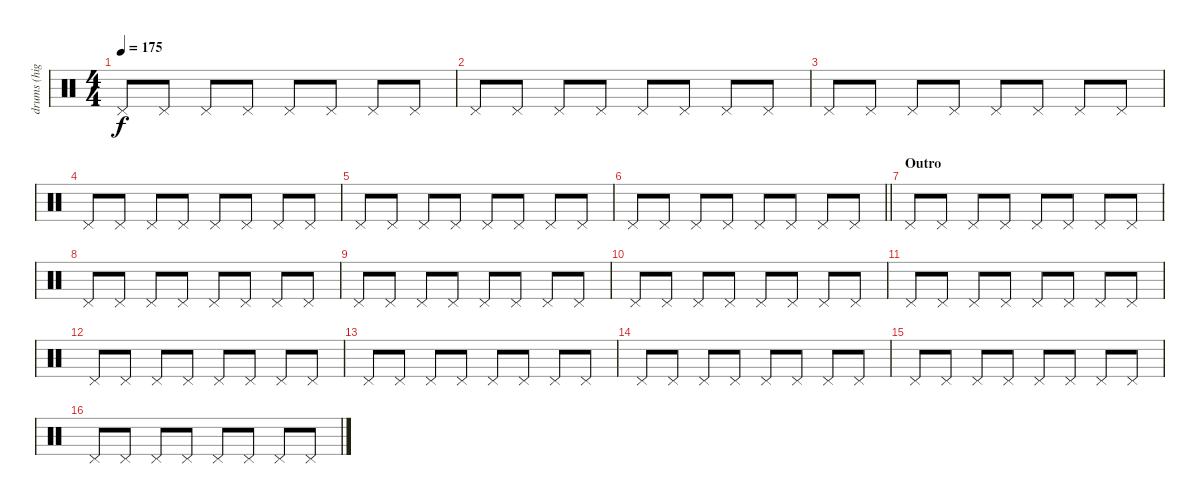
\track ("drums (highhat)" "drums (hig") {instrument percussion}
\staff {score}
\articulation defaults
\ts (4 4)
\tempo 175
\clef neutral
\ks c "Pedal Hi-Hat (hit)".8{dy f} "Pedal Hi-Hat (hit)".8 "Pedal Hi-Hat (hit)".8 "Pedal Hi-Hat (hit)".8 "Pedal Hi-Hat (hit)".8 "Pedal Hi-Hat (hit)".8 "Pedal Hi-Hat (hit)".8 "Pedal Hi-Hat (hit)".8
|
"Pedal Hi-Hat (hit)".8 "Pedal Hi-Hat (hit)".8 "Pedal Hi-Hat (hit)".8 "Pedal Hi-Hat (hit)".8 "Pedal Hi-Hat (hit)".8 "Pedal Hi-Hat (hit)".8 "Pedal Hi-Hat (hit)".8 "Pedal Hi-Hat (hit)".8 |
"Pedal Hi-Hat (hit)".8 "Pedal Hi-Hat (hit)".8 "Pedal Hi-Hat (hit)".8 "Pedal Hi-Hat (hit)".8 "Pedal Hi-Hat (hit)".8 "Pedal Hi-Hat (hit)".8 "Pedal Hi-Hat (hit)".8 "Pedal Hi-Hat (hit)".8 |
"Pedal Hi-Hat (hit)".8 "Pedal Hi-Hat (hit)".8 "Pedal Hi-Hat (hit)".8 "Pedal Hi-Hat (hit)".8 "Pedal Hi-Hat (hit)".8 "Pedal Hi-Hat (hit)".8 "Pedal Hi-Hat (hit)".8 "Pedal Hi-Hat (hit)".8 |
"Pedal Hi-Hat (hit)".8 "Pedal Hi-Hat (hit)".8 "Pedal Hi-Hat (hit)".8 "Pedal Hi-Hat (hit)".8 "Pedal Hi-Hat (hit)".8 "Pedal Hi-Hat (hit)".8 "Pedal Hi-Hat (hit)".8 "Pedal Hi-Hat (hit)".8 |
\barLineRight lightlight "Pedal Hi-Hat (hit)".8 "Pedal Hi-Hat (hit)".8 "Pedal Hi-Hat (hit)".8 "Pedal Hi-Hat (hit)".8 "Pedal Hi-Hat (hit)".8 "Pedal Hi-Hat (hit)".8 "Pedal Hi-Hat (hit)".8 "Pedal Hi-Hat (hit)".8
|
\section ("" "Outro")
"Pedal Hi-Hat (hit)".8 "Pedal Hi-Hat (hit)".8 "Pedal Hi-Hat (hit)".8 "Pedal Hi-Hat (hit)".8 "Pedal Hi-Hat (hit)".8 "Pedal Hi-Hat (hit)".8 "Pedal Hi-Hat (hit)".8 "Pedal Hi-Hat (hit)".8 |
"Pedal Hi-Hat (hit)".8 "Pedal Hi-Hat (hit)".8 "Pedal Hi-Hat (hit)".8 "Pedal Hi-Hat (hit)".8 "Pedal Hi-Hat (hit)".8 "Pedal Hi-Hat (hit)".8 "Pedal Hi-Hat (hit)".8 "Pedal Hi-Hat (hit)".8 |
"Pedal Hi-Hat (hit)".8 "Pedal Hi-Hat (hit)".8 "Pedal Hi-Hat (hit)".8 "Pedal Hi-Hat (hit)".8 "Pedal Hi-Hat (hit)".8 "Pedal Hi-Hat (hit)".8 "Pedal Hi-Hat (hit)".8 "Pedal Hi-Hat (hit)".8 |
"Pedal Hi-Hat (hit)".8 "Pedal Hi-Hat (hit)".8 "Pedal Hi-Hat (hit)".8 "Pedal Hi-Hat (hit)".8 "Pedal Hi-Hat (hit)".8 "Pedal Hi-Hat (hit)".8 "Pedal Hi-Hat (hit)".8 "Pedal Hi-Hat (hit)".8 |
"Pedal Hi-Hat (hit)".8 "Pedal Hi-Hat (hit)".8 "Pedal Hi-Hat (hit)".8 "Pedal Hi-Hat (hit)".8 "Pedal Hi-Hat (hit)".8 "Pedal Hi-Hat (hit)".8 "Pedal Hi-Hat (hit)".8 "Pedal Hi-Hat (hit)".8 |
"Pedal Hi-Hat (hit)".8 "Pedal Hi-Hat (hit)".8 "Pedal Hi-Hat (hit)".8 "Pedal Hi-Hat (hit)".8 "Pedal Hi-Hat (hit)".8 "Pedal Hi-Hat (hit)".8 "Pedal Hi-Hat (hit)".8 "Pedal Hi-Hat (hit)".8 |
"Pedal Hi-Hat (hit)".8 "Pedal Hi-Hat (hit)".8 "Pedal Hi-Hat (hit)".8 "Pedal Hi-Hat (hit)".8 "Pedal Hi-Hat (hit)".8 "Pedal Hi-Hat (hit)".8 "Pedal Hi-Hat (hit)".8 "Pedal Hi-Hat (hit)".8 |
"Pedal Hi-Hat (hit)".8 "Pedal Hi-Hat (hit)".8 "Pedal Hi-Hat (hit)".8 "Pedal Hi-Hat (hit)".8 "Pedal Hi-Hat (hit)".8 "Pedal Hi-Hat (hit)".8 "Pedal Hi-Hat (hit)".8 "Pedal Hi-Hat (hit)".8 |
"Pedal Hi-Hat (hit)".8 "Pedal Hi-Hat (hit)".8 "Pedal Hi-Hat (hit)".8 "Pedal Hi-Hat (hit)".8 "Pedal Hi-Hat (hit)".8 "Pedal Hi-Hat (hit)".8 "Pedal Hi-Hat (hit)".8 "Pedal Hi-Hat (hit)".8 |
"Pedal Hi-Hat (hit)".8 "Pedal Hi-Hat (hit)".8 "Pedal Hi-Hat (hit)".8 "Pedal Hi-Hat (hit)".8 "Pedal Hi-Hat (hit)".8 "Pedal Hi-Hat (hit)".8 "Pedal Hi-Hat (hit)".8 "Pedal Hi-Hat (hit)".8
